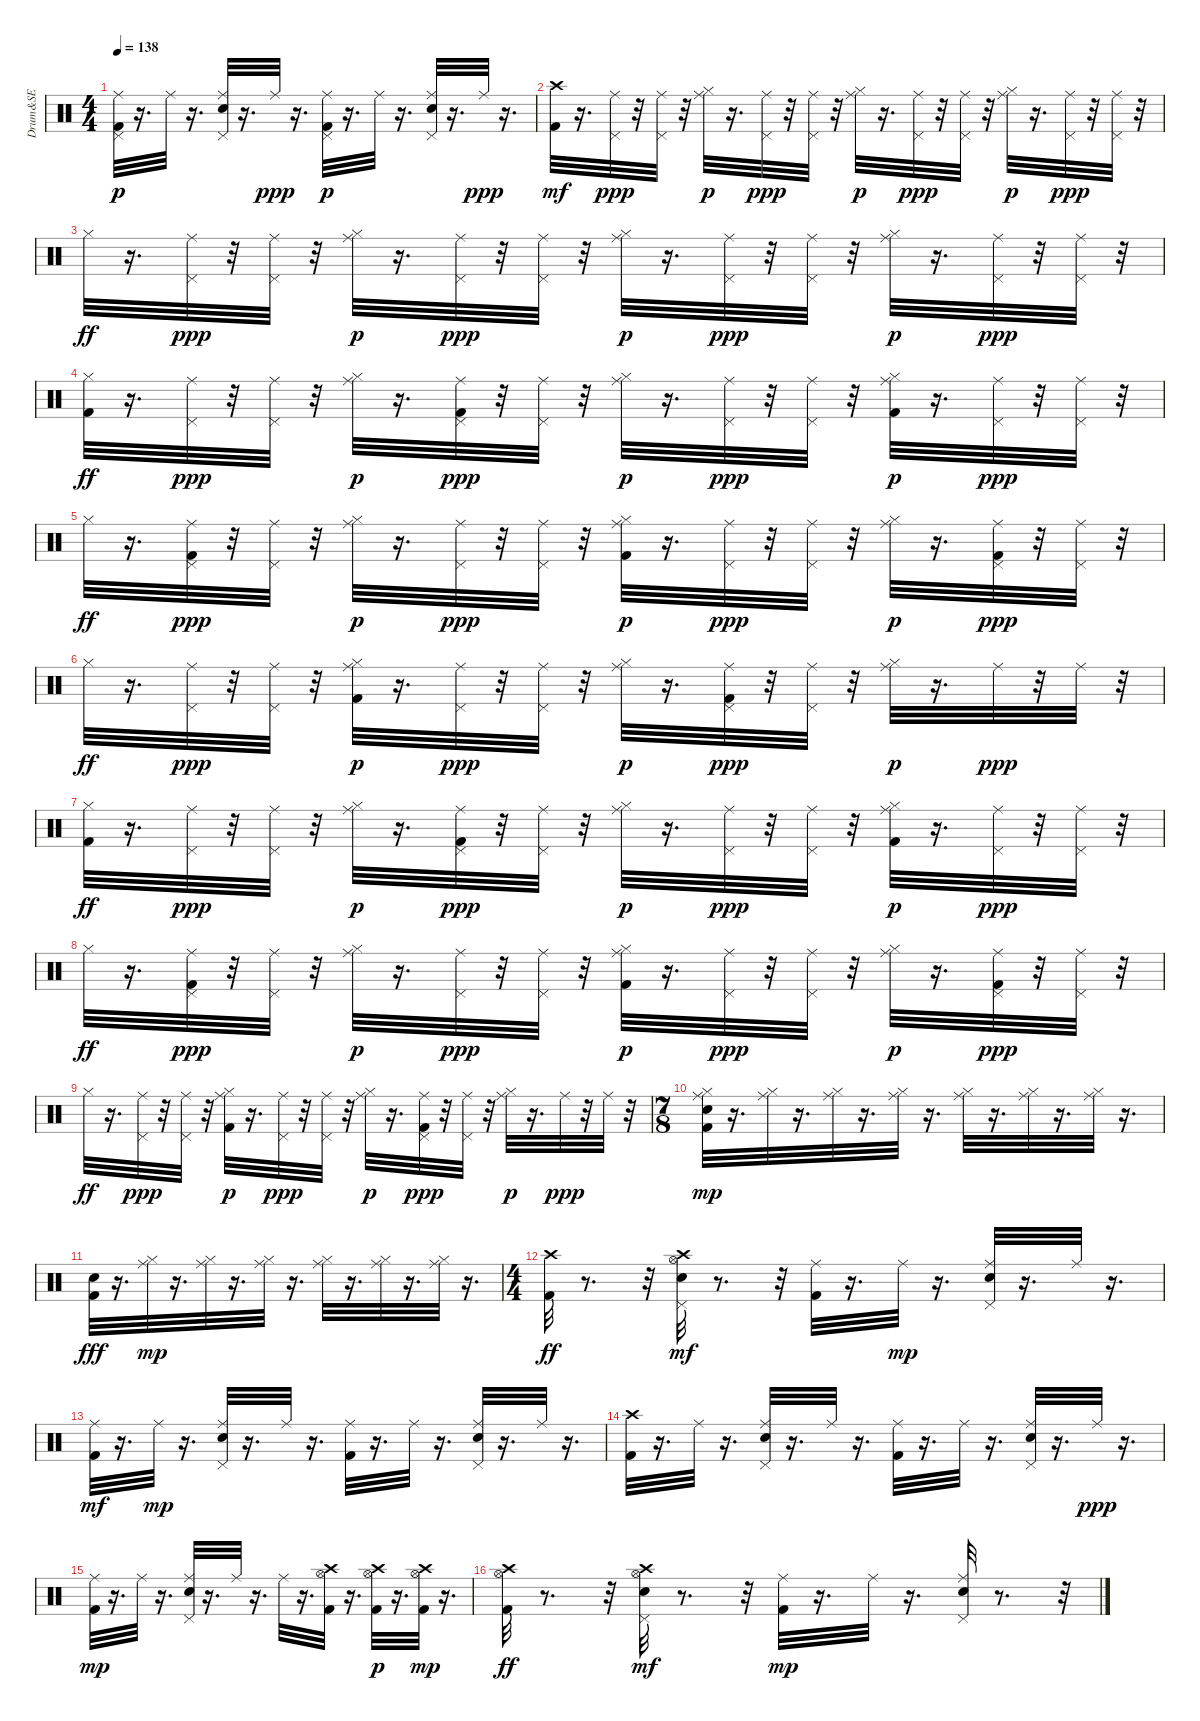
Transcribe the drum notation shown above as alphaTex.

\track ("Drum&SE" "Drum&SE") {instrument percussion}
\staff {score}
\articulation defaults
\ts (4 4)
\tempo 138
\clef neutral
\ks c
("Kick (hit) 2" "Pedal Hi-Hat (hit)" "Ride (middle)").32{dy p} r.16{d} "Ride (middle)".32 r.16{d} ("Snare (hit) 2" "Pedal Hi-Hat (hit)" "Ride (middle)").32 r.16{d} "Ride (middle)".32{dy ppp} r.16{d} ("Kick (hit) 2" "Pedal Hi-Hat (hit)" "Ride (middle)").32{dy p} r.16{d} "Ride (middle)".32 r.16{d} ("Snare (hit) 2" "Pedal Hi-Hat (hit)" "Ride (middle)").32 r.16{d} "Ride (middle)".32{dy ppp} r.16{d} |
("Kick (hit) 2" "Crash high (hit)").32{dy mf} r.16{d} ("Pedal Hi-Hat (hit)" "Ride (middle)").32{dy ppp} r.32 ("Pedal Hi-Hat (hit)" "Ride (middle)").32 r.32 ("Hi-Hat (closed)" "Ride (middle)").32{dy p} r.16{d} ("Pedal Hi-Hat (hit)" "Ride (middle)").32{dy ppp} r.32 ("Pedal Hi-Hat (hit)" "Ride (middle)").32 r.32 ("Hi-Hat (closed)" "Ride (middle)").32{dy p} r.16{d} ("Pedal Hi-Hat (hit)" "Ride (middle)").32{dy ppp} r.32 ("Pedal Hi-Hat (hit)" "Ride (middle)").32 r.32 ("Hi-Hat (closed)" "Ride (middle)").32{dy p} r.16{d} ("Pedal Hi-Hat (hit)" "Ride (middle)").32{dy ppp} r.32 ("Pedal Hi-Hat (hit)" "Ride (middle)").32 r.32 |
"Hi-Hat (closed)".32{dy ff} r.16{d} ("Pedal Hi-Hat (hit)" "Ride (middle)").32{dy ppp} r.32 ("Pedal Hi-Hat (hit)" "Ride (middle)").32 r.32 ("Hi-Hat (closed)" "Ride (middle)").32{dy p} r.16{d} ("Pedal Hi-Hat (hit)" "Ride (middle)").32{dy ppp} r.32 ("Pedal Hi-Hat (hit)" "Ride (middle)").32 r.32 ("Hi-Hat (closed)" "Ride (middle)").32{dy p} r.16{d} ("Pedal Hi-Hat (hit)" "Ride (middle)").32{dy ppp} r.32 ("Pedal Hi-Hat (hit)" "Ride (middle)").32 r.32 ("Hi-Hat (closed)" "Ride (middle)").32{dy p} r.16{d} ("Pedal Hi-Hat (hit)" "Ride (middle)").32{dy ppp} r.32 ("Pedal Hi-Hat (hit)" "Ride (middle)").32 r.32 |
("Kick (hit) 2" "Hi-Hat (closed)").32{dy ff} r.16{d} ("Pedal Hi-Hat (hit)" "Ride (middle)").32{dy ppp} r.32 ("Pedal Hi-Hat (hit)" "Ride (middle)").32 r.32 ("Hi-Hat (closed)" "Ride (middle)").32{dy p} r.16{d} ("Pedal Hi-Hat (hit)" "Kick (hit) 2" "Ride (middle)").32{dy ppp} r.32 ("Pedal Hi-Hat (hit)" "Ride (middle)").32 r.32 ("Hi-Hat (closed)" "Ride (middle)").32{dy p} r.16{d} ("Pedal Hi-Hat (hit)" "Ride (middle)").32{dy ppp} r.32 ("Pedal Hi-Hat (hit)" "Ride (middle)").32 r.32 ("Hi-Hat (closed)" "Kick (hit) 2" "Ride (middle)").32{dy p} r.16{d} ("Pedal Hi-Hat (hit)" "Ride (middle)").32{dy ppp} r.32 ("Pedal Hi-Hat (hit)" "Ride (middle)").32 r.32 |
"Hi-Hat (closed)".32{dy ff} r.16{d} ("Pedal Hi-Hat (hit)" "Kick (hit) 2" "Ride (middle)").32{dy ppp} r.32 ("Pedal Hi-Hat (hit)" "Ride (middle)").32 r.32 ("Hi-Hat (closed)" "Ride (middle)").32{dy p} r.16{d} ("Pedal Hi-Hat (hit)" "Ride (middle)").32{dy ppp} r.32 ("Pedal Hi-Hat (hit)" "Ride (middle)").32 r.32 ("Hi-Hat (closed)" "Kick (hit) 2" "Ride (middle)").32{dy p} r.16{d} ("Pedal Hi-Hat (hit)" "Ride (middle)").32{dy ppp} r.32 ("Pedal Hi-Hat (hit)" "Ride (middle)").32 r.32 ("Hi-Hat (closed)" "Ride (middle)").32{dy p} r.16{d} ("Pedal Hi-Hat (hit)" "Kick (hit) 2" "Ride (middle)").32{dy ppp} r.32 ("Pedal Hi-Hat (hit)" "Ride (middle)").32 r.32 |
"Hi-Hat (closed)".32{dy ff} r.16{d} ("Pedal Hi-Hat (hit)" "Ride (middle)").32{dy ppp} r.32 ("Pedal Hi-Hat (hit)" "Ride (middle)").32 r.32 ("Hi-Hat (closed)" "Kick (hit) 2" "Ride (middle)").32{dy p} r.16{d} ("Pedal Hi-Hat (hit)" "Ride (middle)").32{dy ppp} r.32 ("Pedal Hi-Hat (hit)" "Ride (middle)").32 r.32 ("Hi-Hat (closed)" "Ride (middle)").32{dy p} r.16{d} ("Pedal Hi-Hat (hit)" "Kick (hit) 2" "Ride (middle)").32{dy ppp} r.32 ("Pedal Hi-Hat (hit)" "Ride (middle)").32 r.32 ("Hi-Hat (closed)" "Ride (middle)").32{dy p} r.16{d} "Ride (middle)".32{dy ppp} r.32 "Ride (middle)".32 r.32 |
("Kick (hit) 2" "Hi-Hat (closed)").32{dy ff} r.16{d} ("Pedal Hi-Hat (hit)" "Ride (middle)").32{dy ppp} r.32 ("Pedal Hi-Hat (hit)" "Ride (middle)").32 r.32 ("Hi-Hat (closed)" "Ride (middle)").32{dy p} r.16{d} ("Pedal Hi-Hat (hit)" "Kick (hit) 2" "Ride (middle)").32{dy ppp} r.32 ("Pedal Hi-Hat (hit)" "Ride (middle)").32 r.32 ("Hi-Hat (closed)" "Ride (middle)").32{dy p} r.16{d} ("Pedal Hi-Hat (hit)" "Ride (middle)").32{dy ppp} r.32 ("Pedal Hi-Hat (hit)" "Ride (middle)").32 r.32 ("Hi-Hat (closed)" "Kick (hit) 2" "Ride (middle)").32{dy p} r.16{d} ("Pedal Hi-Hat (hit)" "Ride (middle)").32{dy ppp} r.32 ("Pedal Hi-Hat (hit)" "Ride (middle)").32 r.32 |
"Hi-Hat (closed)".32{dy ff} r.16{d} ("Pedal Hi-Hat (hit)" "Kick (hit) 2" "Ride (middle)").32{dy ppp} r.32 ("Pedal Hi-Hat (hit)" "Ride (middle)").32 r.32 ("Hi-Hat (closed)" "Ride (middle)").32{dy p} r.16{d} ("Pedal Hi-Hat (hit)" "Ride (middle)").32{dy ppp} r.32 ("Pedal Hi-Hat (hit)" "Ride (middle)").32 r.32 ("Hi-Hat (closed)" "Kick (hit) 2" "Ride (middle)").32{dy p} r.16{d} ("Pedal Hi-Hat (hit)" "Ride (middle)").32{dy ppp} r.32 ("Pedal Hi-Hat (hit)" "Ride (middle)").32 r.32 ("Hi-Hat (closed)" "Ride (middle)").32{dy p} r.16{d} ("Pedal Hi-Hat (hit)" "Kick (hit) 2" "Ride (middle)").32{dy ppp} r.32 ("Pedal Hi-Hat (hit)" "Ride (middle)").32 r.32 |
"Hi-Hat (closed)".32{dy ff} r.16{d} ("Pedal Hi-Hat (hit)" "Ride (middle)").32{dy ppp} r.32 ("Pedal Hi-Hat (hit)" "Ride (middle)").32 r.32 ("Hi-Hat (closed)" "Kick (hit) 2" "Ride (middle)").32{dy p} r.16{d} ("Pedal Hi-Hat (hit)" "Ride (middle)").32{dy ppp} r.32 ("Pedal Hi-Hat (hit)" "Ride (middle)").32 r.32 ("Hi-Hat (closed)" "Ride (middle)").32{dy p} r.16{d} ("Pedal Hi-Hat (hit)" "Kick (hit) 2" "Ride (middle)").32{dy ppp} r.32 ("Pedal Hi-Hat (hit)" "Ride (middle)").32 r.32 ("Hi-Hat (closed)" "Ride (middle)").32{dy p} r.16{d} "Ride (middle)".32{dy ppp} r.32 "Ride (middle)".32 r.32 |
\ts (7 8)
("Kick (hit) 2" "Hi-Hat (closed)" "Snare (hit) 2" "Ride (middle)").32{dy mp} r.16{d} ("Hi-Hat (closed)" "Ride (middle)").32 r.16{d} ("Hi-Hat (closed)" "Ride (middle)").32 r.16{d} ("Hi-Hat (closed)" "Ride (middle)").32 r.16{d} ("Hi-Hat (closed)" "Ride (middle)").32 r.16{d} ("Hi-Hat (closed)" "Ride (middle)").32 r.16{d} ("Hi-Hat (closed)" "Ride (middle)").32 r.16{d} |
("Kick (hit) 2" "Snare (hit) 2").32{dy fff} r.16{d} ("Hi-Hat (closed)" "Ride (middle)").32{dy mp} r.16{d} ("Hi-Hat (closed)" "Ride (middle)").32 r.16{d} ("Hi-Hat (closed)" "Ride (middle)").32 r.16{d} ("Hi-Hat (closed)" "Ride (middle)").32 r.16{d} ("Hi-Hat (closed)" "Ride (middle)").32 r.16{d} ("Hi-Hat (closed)" "Ride (middle)").32 r.16{d} |
\ts (4 4)
("Kick (hit) 2" "Crash high (hit)").32{dy ff} r.8{d} r.32 ("Snare (hit) 2" "Hi-Hat (open)" "Pedal Hi-Hat (hit)" "Crash high (hit)").32{dy mf} r.8{d} r.32 ("Kick (hit) 2" "Ride (middle)").32 r.16{d} "Ride (middle)".32{dy mp} r.16{d} ("Snare (hit) 2" "Pedal Hi-Hat (hit)" "Ride (middle)").32 r.16{d} "Ride (middle)".32 r.16{d} |
("Kick (hit) 2" "Ride (middle)").32{dy mf} r.16{d} "Ride (middle)".32{dy mp} r.16{d} ("Snare (hit) 2" "Pedal Hi-Hat (hit)" "Ride (middle)").32 r.16{d} "Ride (middle)".32 r.16{d} ("Kick (hit) 2" "Ride (middle)").32 r.16{d} "Ride (middle)".32 r.16{d} ("Snare (hit) 2" "Pedal Hi-Hat (hit)" "Ride (middle)").32 r.16{d} "Ride (middle)".32 r.16{d} |
("Kick (hit) 2" "Crash high (hit)").32 r.16{d} "Ride (middle)".32 r.16{d} ("Snare (hit) 2" "Pedal Hi-Hat (hit)" "Ride (middle)").32 r.16{d} "Ride (middle)".32 r.16{d} ("Kick (hit) 2" "Ride (middle)").32 r.16{d} "Ride (middle)".32 r.16{d} ("Snare (hit) 2" "Pedal Hi-Hat (hit)" "Ride (middle)").32 r.16{d} "Ride (middle)".32{dy ppp} r.16{d} |
("Kick (hit) 2" "Ride (middle)").32{dy mp} r.16{d} "Ride (middle)".32 r.16{d} ("Snare (hit) 2" "Pedal Hi-Hat (hit)" "Ride (middle)").32 r.16{d} "Ride (middle)".32 r.16{d} "Ride (middle)".32 r.16{d} ("Kick (hit) 2" "Hi-Hat (open)" "Crash high (hit)").32 r.16{d} ("Kick (hit) 2" "Hi-Hat (open)" "Crash high (hit)").32{dy p} r.16{d} ("Kick (hit) 2" "Hi-Hat (open)" "Crash high (hit)").32{dy mp} r.16{d} |
("Kick (hit) 2" "Hi-Hat (open)" "Crash high (hit)").32{dy ff} r.8{d} r.32 ("Snare (hit) 2" "Hi-Hat (open)" "Pedal Hi-Hat (hit)" "Crash high (hit)").32{dy mf} r.8{d} r.32 ("Kick (hit) 2" "Ride (middle)").32{dy mp} r.16{d} "Ride (middle)".32 r.16{d} ("Snare (hit) 2" "Pedal Hi-Hat (hit)" "Ride (middle)").32 r.8{d} r.32
